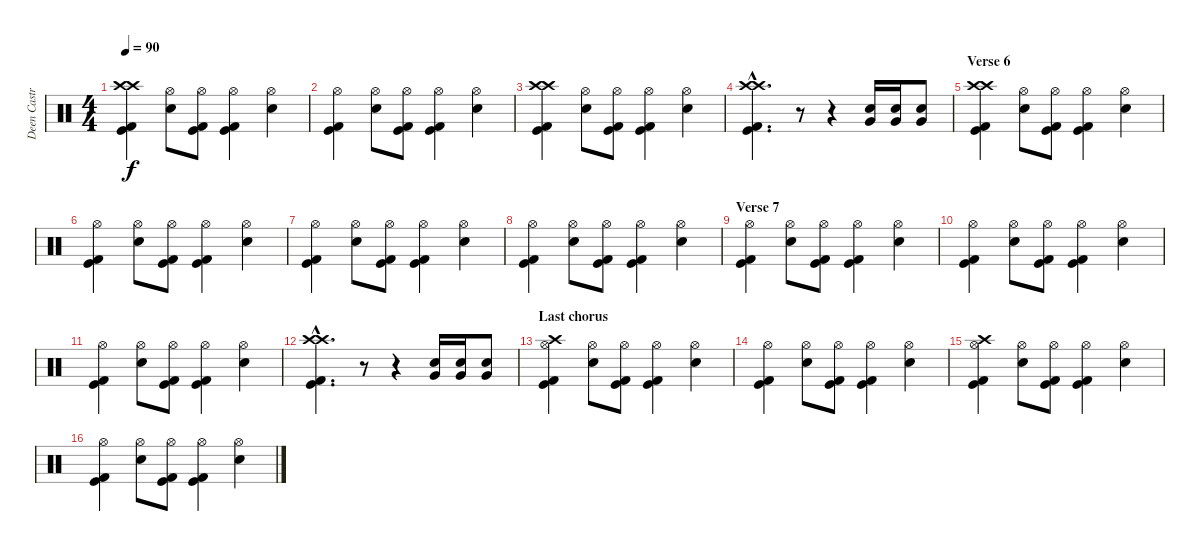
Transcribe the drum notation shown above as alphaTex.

\track ("Deen Castronovo" "Deen Castr") {instrument percussion}
\staff {score}
\articulation defaults
\ts (4 4)
\tempo 90
\clef neutral
\ks c
("Crash high (hit)" "Crash high (hit)" "Kick (hit) 2" "Kick (hit)").4{dy f} ("Snare (hit) 2" "Hi-Hat (open)").8 ("Hi-Hat (open)" "Kick (hit) 2" "Kick (hit)").8 ("Hi-Hat (open)" "Kick (hit) 2" "Kick (hit)").4 ("Snare (hit) 2" "Hi-Hat (open)").4 |
("Hi-Hat (open)" "Kick (hit) 2" "Kick (hit)").4 ("Snare (hit) 2" "Hi-Hat (open)").8 ("Hi-Hat (open)" "Kick (hit) 2" "Kick (hit)").8 ("Hi-Hat (open)" "Kick (hit) 2" "Kick (hit)").4 ("Snare (hit) 2" "Hi-Hat (open)").4 |
("Crash high (hit)" "Crash high (hit)" "Kick (hit) 2" "Kick (hit)").4 ("Snare (hit) 2" "Hi-Hat (open)").8 ("Hi-Hat (open)" "Kick (hit) 2" "Kick (hit)").8 ("Hi-Hat (open)" "Kick (hit) 2" "Kick (hit)").4 ("Snare (hit) 2" "Hi-Hat (open)").4 |
("Crash high (hit)"{hac} "Crash high (hit)"{hac} "Kick (hit) 2"{hac} "Kick (hit)"{hac}).4{d} r.8 r.4 ("Snare (hit) 2" "Very Low Tom (hit)").16 ("Snare (hit) 2" "Very Low Tom (hit)").16 ("Snare (hit) 2" "Very Low Tom (hit)").8 |
\section ("" "Verse 6")
("Crash high (hit)" "Crash high (hit)" "Kick (hit) 2" "Kick (hit)").4 ("Snare (hit) 2" "Hi-Hat (open)").8 ("Hi-Hat (open)" "Kick (hit) 2" "Kick (hit)").8 ("Hi-Hat (open)" "Kick (hit) 2" "Kick (hit)").4 ("Snare (hit) 2" "Hi-Hat (open)").4 |
("Hi-Hat (open)" "Kick (hit) 2" "Kick (hit)").4 ("Snare (hit) 2" "Hi-Hat (open)").8 ("Hi-Hat (open)" "Kick (hit) 2" "Kick (hit)").8 ("Hi-Hat (open)" "Kick (hit) 2" "Kick (hit)").4 ("Snare (hit) 2" "Hi-Hat (open)").4 |
("Hi-Hat (open)" "Kick (hit) 2" "Kick (hit)").4 ("Snare (hit) 2" "Hi-Hat (open)").8 ("Hi-Hat (open)" "Kick (hit) 2" "Kick (hit)").8 ("Hi-Hat (open)" "Kick (hit) 2" "Kick (hit)").4 ("Snare (hit) 2" "Hi-Hat (open)").4 |
("Hi-Hat (open)" "Kick (hit) 2" "Kick (hit)").4 ("Snare (hit) 2" "Hi-Hat (open)").8 ("Hi-Hat (open)" "Kick (hit) 2" "Kick (hit)").8 ("Hi-Hat (open)" "Kick (hit) 2" "Kick (hit)").4 ("Snare (hit) 2" "Hi-Hat (open)").4 |
\section ("" "Verse 7")
("Hi-Hat (open)" "Kick (hit) 2" "Kick (hit)").4 ("Snare (hit) 2" "Hi-Hat (open)").8 ("Hi-Hat (open)" "Kick (hit) 2" "Kick (hit)").8 ("Hi-Hat (open)" "Kick (hit) 2" "Kick (hit)").4 ("Snare (hit) 2" "Hi-Hat (open)").4 |
("Hi-Hat (open)" "Kick (hit) 2" "Kick (hit)").4 ("Snare (hit) 2" "Hi-Hat (open)").8 ("Hi-Hat (open)" "Kick (hit) 2" "Kick (hit)").8 ("Hi-Hat (open)" "Kick (hit) 2" "Kick (hit)").4 ("Snare (hit) 2" "Hi-Hat (open)").4 |
("Hi-Hat (open)" "Kick (hit) 2" "Kick (hit)").4 ("Snare (hit) 2" "Hi-Hat (open)").8 ("Hi-Hat (open)" "Kick (hit) 2" "Kick (hit)").8 ("Hi-Hat (open)" "Kick (hit) 2" "Kick (hit)").4 ("Snare (hit) 2" "Hi-Hat (open)").4 |
("Crash high (hit)"{hac} "Crash high (hit)"{hac} "Kick (hit) 2"{hac} "Kick (hit)"{hac}).4{d} r.8 r.4 ("Snare (hit) 2" "Very Low Tom (hit)").16 ("Snare (hit) 2" "Very Low Tom (hit)").16 ("Snare (hit) 2" "Very Low Tom (hit)").8 |
\section ("" "Last chorus")
("Crash high (hit)" "Hi-Hat (open)" "Kick (hit) 2" "Kick (hit)").4 ("Snare (hit) 2" "Hi-Hat (open)").8 ("Hi-Hat (open)" "Kick (hit) 2" "Kick (hit)").8 ("Hi-Hat (open)" "Kick (hit) 2" "Kick (hit)").4 ("Snare (hit) 2" "Hi-Hat (open)").4 |
("Hi-Hat (open)" "Kick (hit) 2" "Kick (hit)").4 ("Snare (hit) 2" "Hi-Hat (open)").8 ("Hi-Hat (open)" "Kick (hit) 2" "Kick (hit)").8 ("Hi-Hat (open)" "Kick (hit) 2" "Kick (hit)").4 ("Snare (hit) 2" "Hi-Hat (open)").4 |
("Crash high (hit)" "Hi-Hat (open)" "Kick (hit) 2" "Kick (hit)").4 ("Snare (hit) 2" "Hi-Hat (open)").8 ("Hi-Hat (open)" "Kick (hit) 2" "Kick (hit)").8 ("Hi-Hat (open)" "Kick (hit) 2" "Kick (hit)").4 ("Snare (hit) 2" "Hi-Hat (open)").4 |
("Hi-Hat (open)" "Kick (hit) 2" "Kick (hit)").4 ("Snare (hit) 2" "Hi-Hat (open)").8 ("Hi-Hat (open)" "Kick (hit) 2" "Kick (hit)").8 ("Hi-Hat (open)" "Kick (hit) 2" "Kick (hit)").4 ("Snare (hit) 2" "Hi-Hat (open)").4
